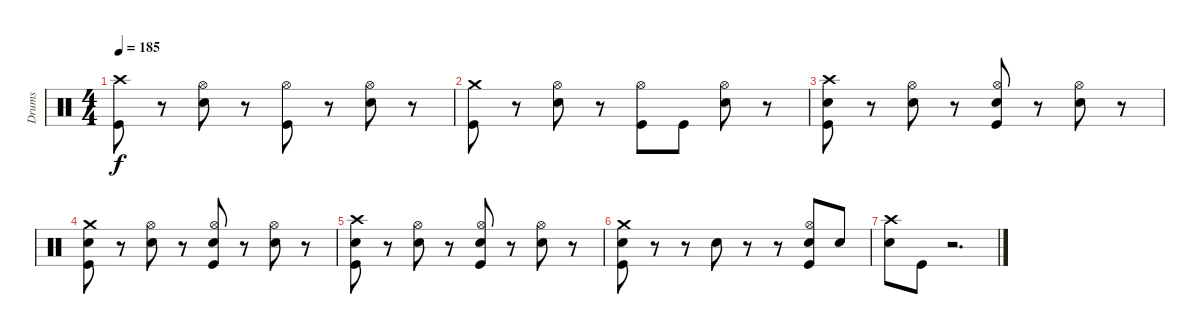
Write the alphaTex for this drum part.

\track ("Drums" "Drums") {instrument percussion}
\staff {score}
\articulation defaults
\ts (4 4)
\tempo 185
\clef neutral
\ks c
("Crash high (hit)" "Kick (hit)").8{dy f} r.8 ("Hi-Hat (open)" "Snare (hit) 2").8 r.8 ("Hi-Hat (open)" "Kick (hit)").8 r.8 ("Hi-Hat (open)" "Snare (hit) 2").8 r.8 |
("Crash medium (hit)" "Kick (hit)").8 r.8 ("Hi-Hat (open)" "Snare (hit) 2").8 r.8 ("Hi-Hat (open)" "Kick (hit)").8 "Kick (hit)".8 ("Hi-Hat (open)" "Snare (hit) 2").8 r.8 |
("Crash high (hit)" "Snare (hit) 2" "Kick (hit)").8 r.8 ("Hi-Hat (open)" "Snare (hit) 2").8 r.8 ("Hi-Hat (open)" "Snare (hit) 2" "Kick (hit)").8 r.8 ("Hi-Hat (open)" "Snare (hit) 2").8 r.8 |
("Crash medium (hit)" "Snare (hit) 2" "Kick (hit)").8 r.8 ("Hi-Hat (open)" "Snare (hit) 2").8 r.8 ("Hi-Hat (open)" "Snare (hit) 2" "Kick (hit)").8 r.8 ("Hi-Hat (open)" "Snare (hit) 2").8 r.8 |
("Crash high (hit)" "Snare (hit) 2" "Kick (hit)").8 r.8 ("Hi-Hat (open)" "Snare (hit) 2").8 r.8 ("Hi-Hat (open)" "Snare (hit) 2" "Kick (hit)").8 r.8 ("Hi-Hat (open)" "Snare (hit) 2").8 r.8 |
("Crash medium (hit)" "Snare (hit) 2" "Kick (hit)").8 r.8 r.8 "Snare (hit) 2".8 r.8 r.8 ("Hi-Hat (open)" "Snare (hit) 2" "Kick (hit)").8 "Snare (hit) 2".8 |
("Crash high (hit)" "Snare (hit) 2").8 "Kick (hit)".8 r.2{d}
